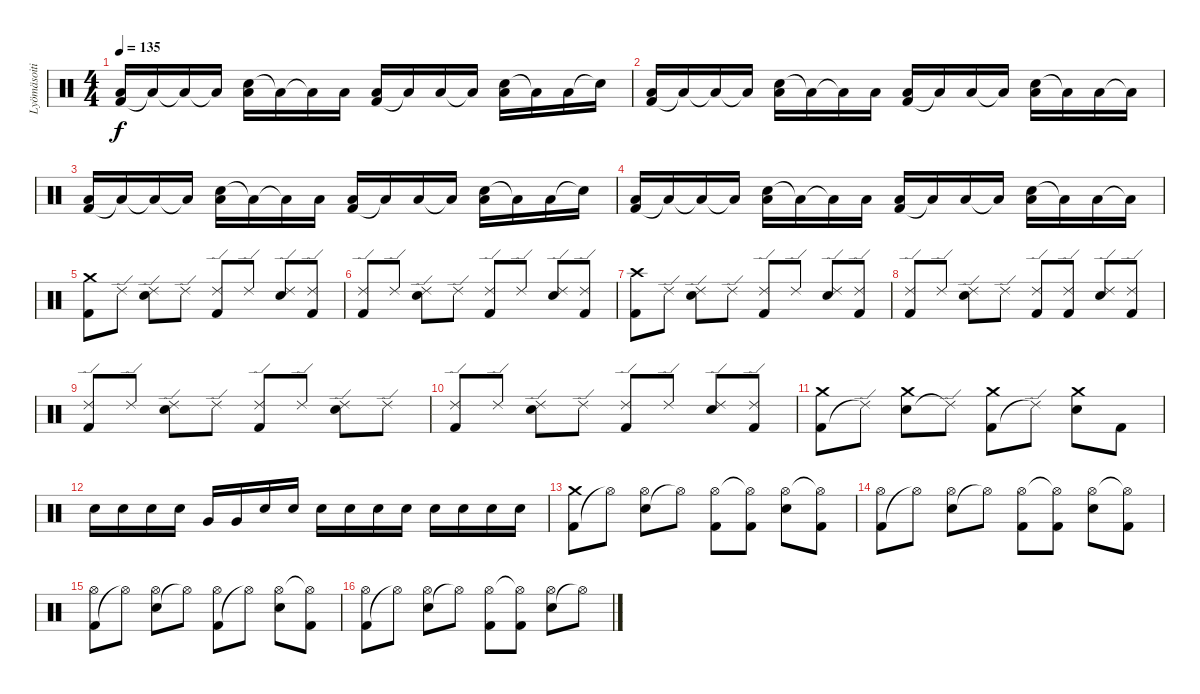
\track ("Lyömäsoitin" "Lyömäsoiti") {instrument percussion}
\staff {score}
\articulation defaults
\ts (4 4)
\tempo 135
\clef neutral
\ks c
("Kick (hit) 2" "Low Tom (hit)").16{dy f} "Low Tom (hit)"{t}.16 "Low Tom (hit)"{t}.16 "Low Tom (hit)"{t}.16 ("Electric Snare (hit)" "Low Tom (hit)").16 "Low Tom (hit)"{t}.16 "Low Tom (hit)"{t}.16 "Low Tom (hit)".16 ("Kick (hit) 2" "Low Tom (hit)").16 "Low Tom (hit)"{t}.16 "Low Tom (hit)".16 "Low Tom (hit)"{t}.16 ("Electric Snare (hit)" "Low Tom (hit)").16 "Low Tom (hit)"{t}.16 "Low Tom (hit)".16 "Snare (hit)"{t}.16 |
("Kick (hit) 2" "Low Tom (hit)").16 "Low Tom (hit)"{t}.16 "Low Tom (hit)"{t}.16 "Low Tom (hit)"{t}.16 ("Electric Snare (hit)" "Low Tom (hit)").16 "Low Tom (hit)"{t}.16 "Low Tom (hit)"{t}.16 "Low Tom (hit)".16 ("Kick (hit) 2" "Low Tom (hit)").16 "Low Tom (hit)"{t}.16 "Low Tom (hit)".16 "Low Tom (hit)"{t}.16 ("Electric Snare (hit)" "Low Tom (hit)").16 "Low Tom (hit)"{t}.16 "Low Tom (hit)".16 "Low Tom (hit)"{t}.16 |
("Kick (hit) 2" "Low Tom (hit)").16 "Low Tom (hit)"{t}.16 "Low Tom (hit)"{t}.16 "Low Tom (hit)"{t}.16 ("Electric Snare (hit)" "Low Tom (hit)").16 "Low Tom (hit)"{t}.16 "Low Tom (hit)"{t}.16 "Low Tom (hit)".16 ("Kick (hit) 2" "Low Tom (hit)").16 "Low Tom (hit)"{t}.16 "Low Tom (hit)".16 "Low Tom (hit)"{t}.16 ("Electric Snare (hit)" "Low Tom (hit)").16 "Low Tom (hit)"{t}.16 "Low Tom (hit)".16 "Snare (hit)"{t}.16 |
("Kick (hit) 2" "Low Tom (hit)").16 "Low Tom (hit)"{t}.16 "Low Tom (hit)"{t}.16 "Low Tom (hit)"{t}.16 ("Electric Snare (hit)" "Low Tom (hit)").16 "Low Tom (hit)"{t}.16 "Low Tom (hit)"{t}.16 "Low Tom (hit)".16 ("Kick (hit) 2" "Low Tom (hit)").16 "Low Tom (hit)"{t}.16 "Low Tom (hit)".16 "Low Tom (hit)"{t}.16 ("Electric Snare (hit)" "Low Tom (hit)").16 "Low Tom (hit)"{t}.16 "Low Tom (hit)".16 "Low Tom (hit)"{t}.16 |
("Kick (hit) 2" "Crash medium (hit)").8 "Ride (edge) 2".8 ("Electric Snare (hit)" "Ride (edge) 2").8 "Ride (edge) 2".8 ("Kick (hit) 2" "Ride (edge) 2").8 "Ride (edge) 2".8 ("Electric Snare (hit)" "Ride (edge) 2").8 ("Kick (hit) 2" "Ride (edge) 2").8 |
("Kick (hit) 2" "Ride (edge) 2").8 "Ride (edge) 2".8 ("Electric Snare (hit)" "Ride (edge) 2").8 "Ride (edge) 2".8 ("Kick (hit) 2" "Ride (edge) 2").8 "Ride (edge) 2".8 ("Electric Snare (hit)" "Ride (edge) 2").8 ("Kick (hit) 2" "Ride (edge) 2").8 |
("Kick (hit) 2" "Crash high (hit)").8 "Ride (edge) 2".8 ("Electric Snare (hit)" "Ride (edge) 2").8 "Ride (edge) 2".8 ("Kick (hit) 2" "Ride (edge) 2").8 "Ride (edge) 2".8 ("Electric Snare (hit)" "Ride (edge) 2").8 ("Kick (hit) 2" "Ride (edge) 2").8 |
("Kick (hit) 2" "Ride (edge) 2").8 "Ride (edge) 2".8 ("Electric Snare (hit)" "Ride (edge) 2").8 "Ride (edge) 2".8 ("Kick (hit) 2" "Ride (edge) 2").8 ("Kick (hit) 2" "Ride (edge) 2").8 ("Electric Snare (hit)" "Ride (edge) 2").8 ("Kick (hit) 2" "Ride (edge) 2").8 |
("Kick (hit) 2" "Ride (edge) 2").8 "Ride (edge) 2".8 ("Electric Snare (hit)" "Ride (edge) 2").8 "Ride (edge) 2".8 ("Kick (hit) 2" "Ride (edge) 2").8 "Ride (edge) 2".8 ("Electric Snare (hit)" "Ride (edge) 2").8 "Ride (edge) 2".8 |
("Kick (hit) 2" "Ride (edge) 2").8 "Ride (edge) 2".8 ("Electric Snare (hit)" "Ride (edge) 2").8 "Ride (edge) 2".8 ("Kick (hit) 2" "Ride (edge) 2").8 "Ride (edge) 2".8 ("Electric Snare (hit)" "Ride (edge) 2").8 ("Kick (hit) 2" "Ride (edge) 2").8 |
("Kick (hit) 2" "Crash medium (hit)").8 "Ride (edge) 2"{t}.8 ("Electric Snare (hit)" "Crash medium (hit)").8 "Ride (edge) 2"{t}.8 ("Kick (hit) 2" "Crash medium (hit)").8 "Ride (edge) 2"{t}.8 ("Electric Snare (hit)" "Crash medium (hit)").8 "Kick (hit) 2".8 |
"Electric Snare (hit)".16 "Electric Snare (hit)".16 "Electric Snare (hit)".16 "Electric Snare (hit)".16 "Very Low Tom (hit)".16 "Very Low Tom (hit)".16 "Electric Snare (hit)".16 "Electric Snare (hit)".16 "Electric Snare (hit)".16 "Electric Snare (hit)".16 "Electric Snare (hit)".16 "Electric Snare (hit)".16 "Electric Snare (hit)".16 "Electric Snare (hit)".16 "Electric Snare (hit)".16 "Electric Snare (hit)".16 |
("Kick (hit) 2" "Crash medium (hit)").8 "Hi-Hat (open)"{t}.8 ("Electric Snare (hit)" "Hi-Hat (open)").8 "Hi-Hat (open)"{t}.8 ("Kick (hit) 2" "Hi-Hat (open)").8 ("Kick (hit) 2" "Hi-Hat (open)"{t}).8 ("Electric Snare (hit)" "Hi-Hat (open)").8 ("Kick (hit) 2" "Hi-Hat (open)"{t}).8 |
("Kick (hit) 2" "Hi-Hat (open)").8 "Hi-Hat (open)"{t}.8 ("Electric Snare (hit)" "Hi-Hat (open)").8 "Hi-Hat (open)"{t}.8 ("Kick (hit) 2" "Hi-Hat (open)").8 ("Kick (hit) 2" "Hi-Hat (open)"{t}).8 ("Electric Snare (hit)" "Hi-Hat (open)").8 ("Kick (hit) 2" "Hi-Hat (open)"{t}).8 |
("Kick (hit) 2" "Hi-Hat (open)").8 "Hi-Hat (open)"{t}.8 ("Electric Snare (hit)" "Hi-Hat (open)").8 "Hi-Hat (open)"{t}.8 ("Kick (hit) 2" "Hi-Hat (open)").8 "Hi-Hat (open)"{t}.8 ("Electric Snare (hit)" "Hi-Hat (open)").8 ("Kick (hit) 2" "Hi-Hat (open)"{t}).8 |
("Kick (hit) 2" "Hi-Hat (open)").8 "Hi-Hat (open)"{t}.8 ("Electric Snare (hit)" "Hi-Hat (open)").8 "Hi-Hat (open)"{t}.8 ("Kick (hit) 2" "Hi-Hat (open)").8 ("Kick (hit) 2" "Hi-Hat (open)"{t}).8 ("Electric Snare (hit)" "Hi-Hat (open)").8 "Hi-Hat (open)"{t}.8
